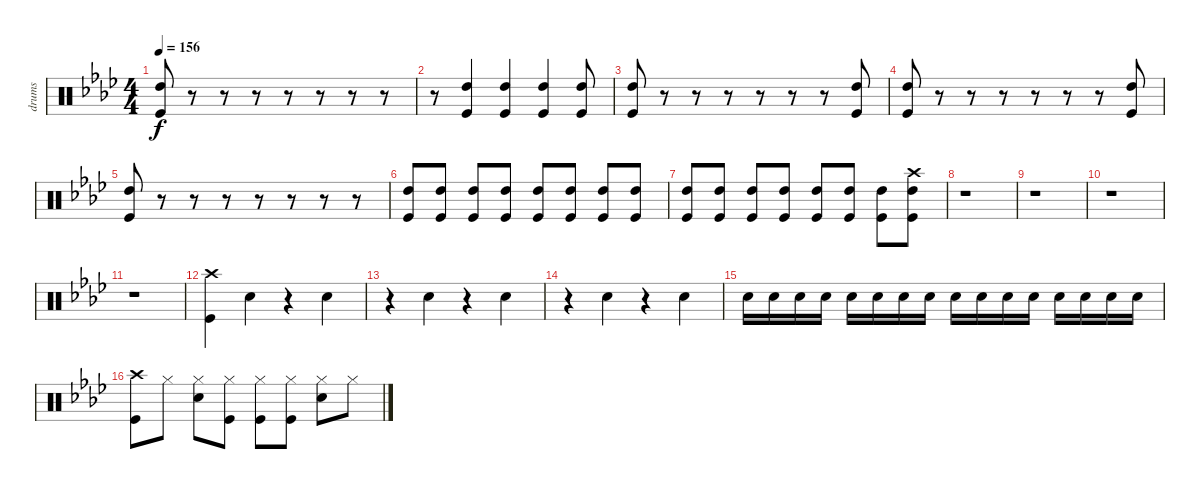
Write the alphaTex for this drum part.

\track ("drums" "drums") {instrument percussion}
\staff {score}
\articulation defaults
\ts (4 4)
\tempo 156
\clef neutral
\ks ab
("Kick (hit)" "High Tom (hit)").8{dy f} r.8 r.8 r.8 r.8 r.8 r.8 r.8 |
r.8 ("Kick (hit)" "High Tom (hit)").4 ("High Tom (hit)" "Kick (hit)").4 ("Kick (hit)" "High Tom (hit)").4 ("Kick (hit)" "High Tom (hit)").8 |
("Kick (hit)" "High Tom (hit)").8 r.8 r.8 r.8 r.8 r.8 r.8 ("Kick (hit)" "High Tom (hit)").8 |
("Kick (hit)" "High Tom (hit)").8 r.8 r.8 r.8 r.8 r.8 r.8 ("Kick (hit)" "High Tom (hit)").8 |
("Kick (hit)" "High Tom (hit)").8 r.8 r.8 r.8 r.8 r.8 r.8 r.8 |
("Kick (hit)" "High Tom (hit)").8 ("Kick (hit)" "High Tom (hit)").8 ("Kick (hit)" "High Tom (hit)").8 ("Kick (hit)" "High Tom (hit)").8 ("Kick (hit)" "High Tom (hit)").8 ("Kick (hit)" "High Tom (hit)").8 ("Kick (hit)" "High Tom (hit)").8 ("Kick (hit)" "High Tom (hit)").8 |
("Kick (hit)" "High Tom (hit)").8 ("Kick (hit)" "High Tom (hit)").8 ("Kick (hit)" "High Tom (hit)").8 ("Kick (hit)" "High Tom (hit)").8 ("Kick (hit)" "High Tom (hit)").8 ("Kick (hit)" "High Tom (hit)").8 ("Kick (hit)" "High Tom (hit)").8 ("Kick (hit)" "High Tom (hit)" "Crash high (hit)").8 |
r.1 |
r.1 |
r.1 |
r.1 |
("Crash high (hit)" "Kick (hit)").4 "Snare (hit) 2".4 r.4 "Snare (hit) 2".4 |
r.4 "Snare (hit) 2".4 r.4 "Snare (hit) 2".4 |
r.4 "Snare (hit) 2".4 r.4 "Snare (hit) 2".4 |
"Snare (hit) 2".16 "Snare (hit) 2".16 "Snare (hit) 2".16 "Snare (hit) 2".16 "Snare (hit) 2".16 "Snare (hit) 2".16 "Snare (hit) 2".16 "Snare (hit) 2".16 "Snare (hit) 2".16 "Snare (hit) 2".16 "Snare (hit) 2".16 "Snare (hit) 2".16 "Snare (hit) 2".16 "Snare (hit) 2".16 "Snare (hit) 2".16 "Snare (hit) 2".16 |
("Crash high (hit)" "Kick (hit)").8 "Hi-Hat (closed)".8 ("Hi-Hat (closed)" "Snare (hit) 2").8 ("Hi-Hat (closed)" "Kick (hit)").8 ("Hi-Hat (closed)" "Kick (hit)").8 ("Hi-Hat (closed)" "Kick (hit)").8 ("Hi-Hat (closed)" "Snare (hit) 2").8 "Hi-Hat (closed)".8
